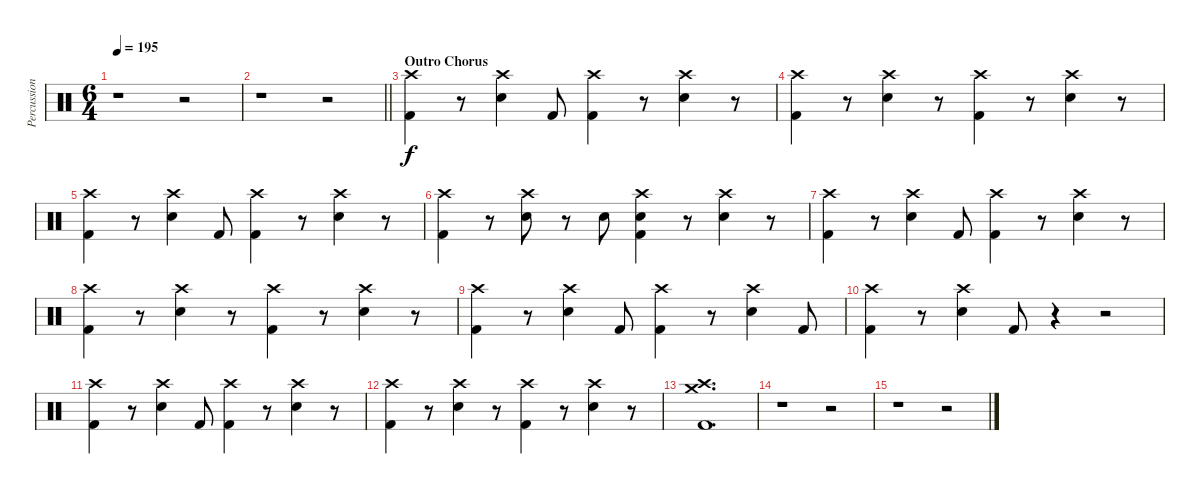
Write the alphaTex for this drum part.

\track ("Percussion" "Percussion") {instrument percussion}
\staff {score}
\articulation defaults
\ts (6 4)
\tempo 195
\clef neutral
\ks c
r.1{dy f} r.2 |
\barLineRight lightlight
r.1 r.2 |
\section ("" "Outro Chorus")
("Crash high (hit)" "Kick (hit) 2").4 r.8 ("Crash high (hit)" "Electric Snare (hit)").4 "Kick (hit) 2".8 ("Crash high (hit)" "Kick (hit) 2").4 r.8 ("Crash high (hit)" "Electric Snare (hit)").4 r.8 |
("Crash high (hit)" "Kick (hit) 2").4 r.8 ("Crash high (hit)" "Electric Snare (hit)").4 r.8 ("Crash high (hit)" "Kick (hit) 2").4 r.8 ("Crash high (hit)" "Electric Snare (hit)").4 r.8 |
("Crash high (hit)" "Kick (hit) 2").4 r.8 ("Crash high (hit)" "Electric Snare (hit)").4 "Kick (hit) 2".8 ("Crash high (hit)" "Kick (hit) 2").4 r.8 ("Crash high (hit)" "Electric Snare (hit)").4 r.8 |
("Crash high (hit)" "Kick (hit) 2").4 r.8 ("Crash high (hit)" "Electric Snare (hit)").8 r.8 "Electric Snare (hit)".8 ("Crash high (hit)" "Electric Snare (hit)" "Kick (hit) 2").4 r.8 ("Crash high (hit)" "Electric Snare (hit)").4 r.8 |
("Crash high (hit)" "Kick (hit) 2").4 r.8 ("Crash high (hit)" "Electric Snare (hit)").4 "Kick (hit) 2".8 ("Crash high (hit)" "Kick (hit) 2").4 r.8 ("Crash high (hit)" "Electric Snare (hit)").4 r.8 |
("Crash high (hit)" "Kick (hit) 2").4 r.8 ("Crash high (hit)" "Electric Snare (hit)").4 r.8 ("Crash high (hit)" "Kick (hit) 2").4 r.8 ("Crash high (hit)" "Electric Snare (hit)").4 r.8 |
("Crash high (hit)" "Kick (hit) 2").4 r.8 ("Crash high (hit)" "Electric Snare (hit)").4 "Kick (hit) 2".8 ("Crash high (hit)" "Kick (hit) 2").4 r.8 ("Crash high (hit)" "Electric Snare (hit)").4 "Kick (hit) 2".8 |
("Crash high (hit)" "Kick (hit) 2").4 r.8 ("Crash high (hit)" "Electric Snare (hit)").4 "Kick (hit) 2".8 r.4 r.2 |
("Crash high (hit)" "Kick (hit) 2").4 r.8 ("Crash high (hit)" "Electric Snare (hit)").4 "Kick (hit) 2".8 ("Crash high (hit)" "Kick (hit) 2").4 r.8 ("Crash high (hit)" "Electric Snare (hit)").4 r.8 |
("Crash high (hit)" "Kick (hit) 2").4 r.8 ("Crash high (hit)" "Electric Snare (hit)").4 r.8 ("Crash high (hit)" "Kick (hit) 2").4 r.8 ("Crash high (hit)" "Electric Snare (hit)").4 r.8 |
("Crash high (hit)" "Crash medium (hit)" "Kick (hit) 2").1{d} |
r.1 r.2 |
r.1 r.2
